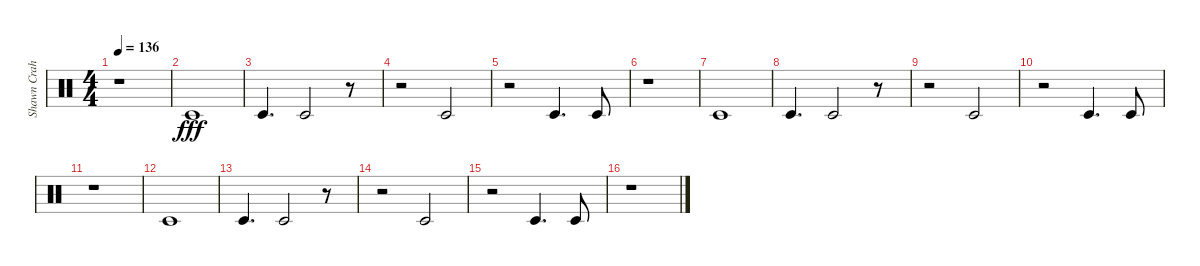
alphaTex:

\track ("Shawn Crahan" "Shawn Crah") {instrument percussion}
\staff {score}
\articulation defaults
\ts (4 4)
\tempo 136
\clef neutral
\ks c
r.1{dy fff} |
"Timbale low (hit)".1 |
"Timbale low (hit)".4{d} "Timbale low (hit)".2 r.8 |
r.2 "Timbale low (hit)".2 |
r.2 "Timbale low (hit)".4{d} "Timbale low (hit)".8 |
r.1 |
"Timbale low (hit)".1 |
"Timbale low (hit)".4{d} "Timbale low (hit)".2 r.8 |
r.2 "Timbale low (hit)".2 |
r.2 "Timbale low (hit)".4{d} "Timbale low (hit)".8 |
r.1 |
"Timbale low (hit)".1 |
"Timbale low (hit)".4{d} "Timbale low (hit)".2 r.8 |
r.2 "Timbale low (hit)".2 |
r.2 "Timbale low (hit)".4{d} "Timbale low (hit)".8 |
r.1
